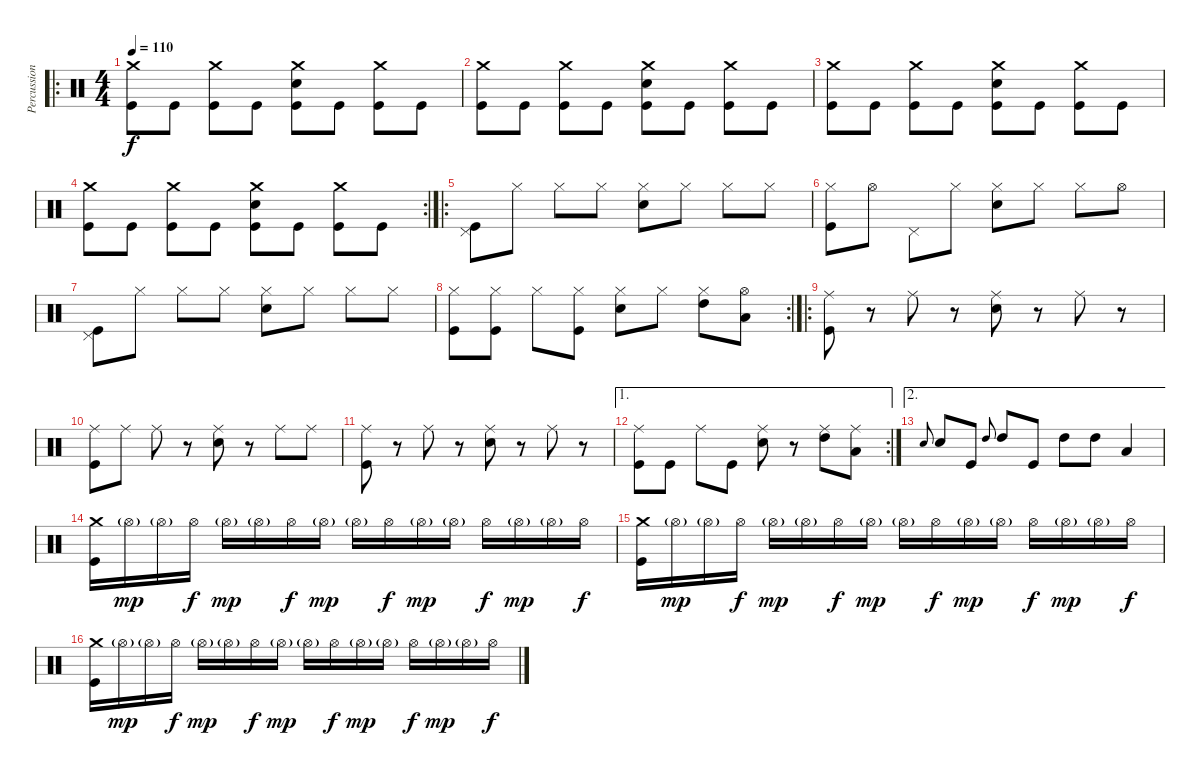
\track ("Percussion" "Percussion") {instrument percussion}
\staff {score}
\articulation defaults
\ro
\ts (4 4)
\tempo 110
\clef neutral
\ks c
("Crash medium (hit)" "Kick (hit)").8{dy f} "Kick (hit)".8 ("Crash medium (hit)" "Kick (hit)").8 "Kick (hit)".8 ("Crash medium (hit)" "Snare (hit) 2" "Kick (hit)").8 "Kick (hit)".8 ("Crash medium (hit)" "Kick (hit)").8 "Kick (hit)".8 |
("Crash medium (hit)" "Kick (hit)").8 "Kick (hit)".8 ("Crash medium (hit)" "Kick (hit)").8 "Kick (hit)".8 ("Crash medium (hit)" "Snare (hit) 2" "Kick (hit)").8 "Kick (hit)".8 ("Crash medium (hit)" "Kick (hit)").8 "Kick (hit)".8 |
("Crash medium (hit)" "Kick (hit)").8 "Kick (hit)".8 ("Crash medium (hit)" "Kick (hit)").8 "Kick (hit)".8 ("Crash medium (hit)" "Snare (hit) 2" "Kick (hit)").8 "Kick (hit)".8 ("Crash medium (hit)" "Kick (hit)").8 "Kick (hit)".8 |
\rc 2
("Crash medium (hit)" "Kick (hit)").8 "Kick (hit)".8 ("Crash medium (hit)" "Kick (hit)").8 "Kick (hit)".8 ("Crash medium (hit)" "Snare (hit) 2" "Kick (hit)").8 "Kick (hit)".8 ("Crash medium (hit)" "Kick (hit)").8 "Kick (hit)".8 |
\ro
("Pedal Hi-Hat (hit)" "Kick (hit)").8 "Hi-Hat (closed)".8 "Hi-Hat (closed)".8 "Hi-Hat (closed)".8 ("Hi-Hat (closed)" "Snare (hit) 2").8 "Hi-Hat (closed)".8 "Hi-Hat (closed)".8 "Hi-Hat (closed)".8 |
("Hi-Hat (closed)" "Kick (hit)").8 "Hi-Hat (open)".8 "Pedal Hi-Hat (hit)".8 "Hi-Hat (closed)".8 ("Hi-Hat (closed)" "Snare (hit) 2").8 "Hi-Hat (closed)".8 "Hi-Hat (closed)".8 "Hi-Hat (open)".8 |
("Pedal Hi-Hat (hit)" "Kick (hit)").8 "Hi-Hat (closed)".8 "Hi-Hat (closed)".8 "Hi-Hat (closed)".8 ("Hi-Hat (closed)" "Snare (hit) 2").8 "Hi-Hat (closed)".8 "Hi-Hat (closed)".8 "Hi-Hat (closed)".8 |
\rc 2
("Hi-Hat (closed)" "Kick (hit)").8 ("Hi-Hat (closed)" "Kick (hit)").8 "Hi-Hat (closed)".8 ("Hi-Hat (closed)" "Kick (hit)").8 ("Hi-Hat (closed)" "Snare (hit) 2").8 "Hi-Hat (closed)".8 ("Hi-Hat (closed)" "High Tom (hit)").8 ("Hi-Hat (open)" "Low Tom (hit)").8 |
\ro
("Ride (middle)" "Kick (hit)").8 r.8 "Ride (middle)".8 r.8 ("Ride (middle)" "Snare (hit) 2").8 r.8 "Ride (middle)".8 r.8 |
("Ride (middle)" "Kick (hit)").8 "Ride (middle)".8 "Ride (middle)".8 r.8 ("Ride (middle)" "Snare (hit) 2").8 r.8 "Ride (middle)".8 "Ride (middle)".8 |
("Ride (middle)" "Kick (hit)").8 r.8 "Ride (middle)".8 r.8 ("Ride (middle)" "Snare (hit) 2").8 r.8 "Ride (middle)".8 r.8 |
\ae 1
\rc 2
("Ride (middle)" "Kick (hit)").8 "Kick (hit)".8 "Ride (middle)".8 "Kick (hit)".8 ("Ride (middle)" "Snare (hit) 2").8 r.8 ("Ride (middle)" "High Tom (hit)").8 ("Ride (middle)" "Low Tom (hit)").8 |
\ae 2 "Snare (hit) 2".8{gr onbeat} "Snare (hit) 2".8 "Kick (hit)".8 "High Tom (hit)".8{gr onbeat} "High Tom (hit)".8 "Kick (hit)".8 "High Tom (hit)".8 "High Tom (hit)".8 "Low Tom (hit)".4
|
("Crash medium (hit)" "Kick (hit)").16 "Hi-Hat (open)"{g}.16{dy mp} "Hi-Hat (open)"{g}.16 "Hi-Hat (open)".16{dy f} "Hi-Hat (open)"{g}.16{dy mp} "Hi-Hat (open)"{g}.16 "Hi-Hat (open)".16{dy f} "Hi-Hat (open)"{g}.16{dy mp} "Hi-Hat (open)"{g}.16 "Hi-Hat (open)".16{dy f} "Hi-Hat (open)"{g}.16{dy mp} "Hi-Hat (open)"{g}.16 "Hi-Hat (open)".16{dy f} "Hi-Hat (open)"{g}.16{dy mp} "Hi-Hat (open)"{g}.16 "Hi-Hat (open)".16{dy f} |
("Crash medium (hit)" "Kick (hit)").16 "Hi-Hat (open)"{g}.16{dy mp} "Hi-Hat (open)"{g}.16 "Hi-Hat (open)".16{dy f} "Hi-Hat (open)"{g}.16{dy mp} "Hi-Hat (open)"{g}.16 "Hi-Hat (open)".16{dy f} "Hi-Hat (open)"{g}.16{dy mp} "Hi-Hat (open)"{g}.16 "Hi-Hat (open)".16{dy f} "Hi-Hat (open)"{g}.16{dy mp} "Hi-Hat (open)"{g}.16 "Hi-Hat (open)".16{dy f} "Hi-Hat (open)"{g}.16{dy mp} "Hi-Hat (open)"{g}.16 "Hi-Hat (open)".16{dy f} |
("Crash medium (hit)" "Kick (hit)").16 "Hi-Hat (open)"{g}.16{dy mp} "Hi-Hat (open)"{g}.16 "Hi-Hat (open)".16{dy f} "Hi-Hat (open)"{g}.16{dy mp} "Hi-Hat (open)"{g}.16 "Hi-Hat (open)".16{dy f} "Hi-Hat (open)"{g}.16{dy mp} "Hi-Hat (open)"{g}.16 "Hi-Hat (open)".16{dy f} "Hi-Hat (open)"{g}.16{dy mp} "Hi-Hat (open)"{g}.16 "Hi-Hat (open)".16{dy f} "Hi-Hat (open)"{g}.16{dy mp} "Hi-Hat (open)"{g}.16 "Hi-Hat (open)".16{dy f}
